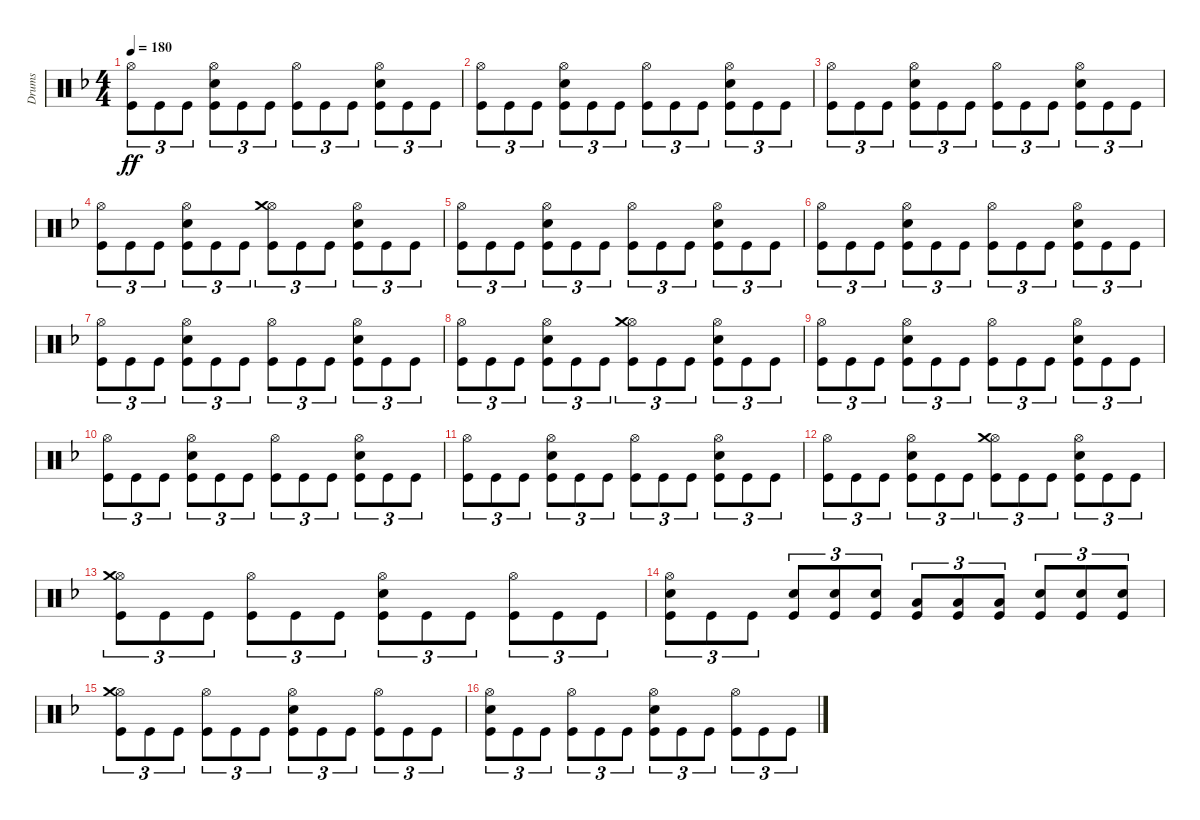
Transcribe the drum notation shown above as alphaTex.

\track ("Drums" "Drums") {instrument percussion}
\staff {score}
\articulation defaults
\ts (4 4)
\tempo 180
\clef neutral
\ks dminor
("Hi-Hat (open)" "Kick (hit)").8{tu (3 2) dy ff} "Kick (hit)".8{tu (3 2)} "Kick (hit)".8{tu (3 2)} ("Hi-Hat (open)" "Snare (hit) 2" "Kick (hit)").8{tu (3 2)} "Kick (hit)".8{tu (3 2)} "Kick (hit)".8{tu (3 2)} ("Hi-Hat (open)" "Kick (hit)").8{tu (3 2)} "Kick (hit)".8{tu (3 2)} "Kick (hit)".8{tu (3 2)} ("Hi-Hat (open)" "Snare (hit) 2" "Kick (hit)").8{tu (3 2)} "Kick (hit)".8{tu (3 2)} "Kick (hit)".8{tu (3 2)} |
("Hi-Hat (open)" "Kick (hit)").8{tu (3 2)} "Kick (hit)".8{tu (3 2)} "Kick (hit)".8{tu (3 2)} ("Hi-Hat (open)" "Snare (hit) 2" "Kick (hit)").8{tu (3 2)} "Kick (hit)".8{tu (3 2)} "Kick (hit)".8{tu (3 2)} ("Hi-Hat (open)" "Kick (hit)").8{tu (3 2)} "Kick (hit)".8{tu (3 2)} "Kick (hit)".8{tu (3 2)} ("Hi-Hat (open)" "Snare (hit) 2" "Kick (hit)").8{tu (3 2)} "Kick (hit)".8{tu (3 2)} "Kick (hit)".8{tu (3 2)} |
("Hi-Hat (open)" "Kick (hit)").8{tu (3 2)} "Kick (hit)".8{tu (3 2)} "Kick (hit)".8{tu (3 2)} ("Hi-Hat (open)" "Snare (hit) 2" "Kick (hit)").8{tu (3 2)} "Kick (hit)".8{tu (3 2)} "Kick (hit)".8{tu (3 2)} ("Hi-Hat (open)" "Kick (hit)").8{tu (3 2)} "Kick (hit)".8{tu (3 2)} "Kick (hit)".8{tu (3 2)} ("Hi-Hat (open)" "Snare (hit) 2" "Kick (hit)").8{tu (3 2)} "Kick (hit)".8{tu (3 2)} "Kick (hit)".8{tu (3 2)} |
("Hi-Hat (open)" "Kick (hit)").8{tu (3 2)} "Kick (hit)".8{tu (3 2)} "Kick (hit)".8{tu (3 2)} ("Hi-Hat (open)" "Snare (hit) 2" "Kick (hit)").8{tu (3 2)} "Kick (hit)".8{tu (3 2)} "Kick (hit)".8{tu (3 2)} ("Hi-Hat (open)" "Crash medium (hit)" "Kick (hit)").8{tu (3 2)} "Kick (hit)".8{tu (3 2)} "Kick (hit)".8{tu (3 2)} ("Hi-Hat (open)" "Snare (hit) 2" "Kick (hit)").8{tu (3 2)} "Kick (hit)".8{tu (3 2)} "Kick (hit)".8{tu (3 2)} |
("Hi-Hat (open)" "Kick (hit)").8{tu (3 2)} "Kick (hit)".8{tu (3 2)} "Kick (hit)".8{tu (3 2)} ("Hi-Hat (open)" "Snare (hit) 2" "Kick (hit)").8{tu (3 2)} "Kick (hit)".8{tu (3 2)} "Kick (hit)".8{tu (3 2)} ("Hi-Hat (open)" "Kick (hit)").8{tu (3 2)} "Kick (hit)".8{tu (3 2)} "Kick (hit)".8{tu (3 2)} ("Hi-Hat (open)" "Snare (hit) 2" "Kick (hit)").8{tu (3 2)} "Kick (hit)".8{tu (3 2)} "Kick (hit)".8{tu (3 2)} |
("Hi-Hat (open)" "Kick (hit)").8{tu (3 2)} "Kick (hit)".8{tu (3 2)} "Kick (hit)".8{tu (3 2)} ("Hi-Hat (open)" "Snare (hit) 2" "Kick (hit)").8{tu (3 2)} "Kick (hit)".8{tu (3 2)} "Kick (hit)".8{tu (3 2)} ("Hi-Hat (open)" "Kick (hit)").8{tu (3 2)} "Kick (hit)".8{tu (3 2)} "Kick (hit)".8{tu (3 2)} ("Hi-Hat (open)" "Snare (hit) 2" "Kick (hit)").8{tu (3 2)} "Kick (hit)".8{tu (3 2)} "Kick (hit)".8{tu (3 2)} |
("Hi-Hat (open)" "Kick (hit)").8{tu (3 2)} "Kick (hit)".8{tu (3 2)} "Kick (hit)".8{tu (3 2)} ("Hi-Hat (open)" "Snare (hit) 2" "Kick (hit)").8{tu (3 2)} "Kick (hit)".8{tu (3 2)} "Kick (hit)".8{tu (3 2)} ("Hi-Hat (open)" "Kick (hit)").8{tu (3 2)} "Kick (hit)".8{tu (3 2)} "Kick (hit)".8{tu (3 2)} ("Hi-Hat (open)" "Snare (hit) 2" "Kick (hit)").8{tu (3 2)} "Kick (hit)".8{tu (3 2)} "Kick (hit)".8{tu (3 2)} |
("Hi-Hat (open)" "Kick (hit)").8{tu (3 2)} "Kick (hit)".8{tu (3 2)} "Kick (hit)".8{tu (3 2)} ("Hi-Hat (open)" "Snare (hit) 2" "Kick (hit)").8{tu (3 2)} "Kick (hit)".8{tu (3 2)} "Kick (hit)".8{tu (3 2)} ("Hi-Hat (open)" "Crash medium (hit)" "Kick (hit)").8{tu (3 2)} "Kick (hit)".8{tu (3 2)} "Kick (hit)".8{tu (3 2)} ("Hi-Hat (open)" "Snare (hit) 2" "Kick (hit)").8{tu (3 2)} "Kick (hit)".8{tu (3 2)} "Kick (hit)".8{tu (3 2)} |
("Hi-Hat (open)" "Kick (hit)").8{tu (3 2)} "Kick (hit)".8{tu (3 2)} "Kick (hit)".8{tu (3 2)} ("Hi-Hat (open)" "Snare (hit) 2" "Kick (hit)").8{tu (3 2)} "Kick (hit)".8{tu (3 2)} "Kick (hit)".8{tu (3 2)} ("Hi-Hat (open)" "Kick (hit)").8{tu (3 2)} "Kick (hit)".8{tu (3 2)} "Kick (hit)".8{tu (3 2)} ("Hi-Hat (open)" "Snare (hit) 2" "Kick (hit)").8{tu (3 2)} "Kick (hit)".8{tu (3 2)} "Kick (hit)".8{tu (3 2)} |
("Hi-Hat (open)" "Kick (hit)").8{tu (3 2)} "Kick (hit)".8{tu (3 2)} "Kick (hit)".8{tu (3 2)} ("Hi-Hat (open)" "Snare (hit) 2" "Kick (hit)").8{tu (3 2)} "Kick (hit)".8{tu (3 2)} "Kick (hit)".8{tu (3 2)} ("Hi-Hat (open)" "Kick (hit)").8{tu (3 2)} "Kick (hit)".8{tu (3 2)} "Kick (hit)".8{tu (3 2)} ("Hi-Hat (open)" "Snare (hit) 2" "Kick (hit)").8{tu (3 2)} "Kick (hit)".8{tu (3 2)} "Kick (hit)".8{tu (3 2)} |
("Hi-Hat (open)" "Kick (hit)").8{tu (3 2)} "Kick (hit)".8{tu (3 2)} "Kick (hit)".8{tu (3 2)} ("Hi-Hat (open)" "Snare (hit) 2" "Kick (hit)").8{tu (3 2)} "Kick (hit)".8{tu (3 2)} "Kick (hit)".8{tu (3 2)} ("Hi-Hat (open)" "Kick (hit)").8{tu (3 2)} "Kick (hit)".8{tu (3 2)} "Kick (hit)".8{tu (3 2)} ("Hi-Hat (open)" "Snare (hit) 2" "Kick (hit)").8{tu (3 2)} "Kick (hit)".8{tu (3 2)} "Kick (hit)".8{tu (3 2)} |
("Hi-Hat (open)" "Kick (hit)").8{tu (3 2)} "Kick (hit)".8{tu (3 2)} "Kick (hit)".8{tu (3 2)} ("Hi-Hat (open)" "Snare (hit) 2" "Kick (hit)").8{tu (3 2)} "Kick (hit)".8{tu (3 2)} "Kick (hit)".8{tu (3 2)} ("Hi-Hat (open)" "Crash medium (hit)" "Kick (hit)").8{tu (3 2)} "Kick (hit)".8{tu (3 2)} "Kick (hit)".8{tu (3 2)} ("Hi-Hat (open)" "Snare (hit) 2" "Kick (hit)").8{tu (3 2)} "Kick (hit)".8{tu (3 2)} "Kick (hit)".8{tu (3 2)} |
("Hi-Hat (open)" "Crash medium (hit)" "Kick (hit)").8{tu (3 2)} "Kick (hit)".8{tu (3 2)} "Kick (hit)".8{tu (3 2)} ("Hi-Hat (open)" "Kick (hit)").8{tu (3 2)} "Kick (hit)".8{tu (3 2)} "Kick (hit)".8{tu (3 2)} ("Hi-Hat (open)" "Snare (hit) 2" "Kick (hit)").8{tu (3 2)} "Kick (hit)".8{tu (3 2)} "Kick (hit)".8{tu (3 2)} ("Hi-Hat (open)" "Kick (hit)").8{tu (3 2)} "Kick (hit)".8{tu (3 2)} "Kick (hit)".8{tu (3 2)} |
("Hi-Hat (open)" "Snare (hit) 2" "Kick (hit)").8{tu (3 2)} "Kick (hit)".8{tu (3 2)} "Kick (hit)".8{tu (3 2)} ("Snare (hit) 2" "Kick (hit)").8{tu (3 2)} ("Snare (hit) 2" "Kick (hit)").8{tu (3 2)} ("Snare (hit) 2" "Kick (hit)").8{tu (3 2)} ("Low Tom (hit)" "Kick (hit)").8{tu (3 2)} ("Low Tom (hit)" "Kick (hit)").8{tu (3 2)} ("Low Tom (hit)" "Kick (hit)").8{tu (3 2)} ("Snare (hit) 2" "Kick (hit)").8{tu (3 2)} ("Snare (hit) 2" "Kick (hit)").8{tu (3 2)} ("Snare (hit) 2" "Kick (hit)").8{tu (3 2)} |
("Hi-Hat (open)" "Crash medium (hit)" "Kick (hit)").8{tu (3 2)} "Kick (hit)".8{tu (3 2)} "Kick (hit)".8{tu (3 2)} ("Hi-Hat (open)" "Kick (hit)").8{tu (3 2)} "Kick (hit)".8{tu (3 2)} "Kick (hit)".8{tu (3 2)} ("Hi-Hat (open)" "Snare (hit) 2" "Kick (hit)").8{tu (3 2)} "Kick (hit)".8{tu (3 2)} "Kick (hit)".8{tu (3 2)} ("Hi-Hat (open)" "Kick (hit)").8{tu (3 2)} "Kick (hit)".8{tu (3 2)} "Kick (hit)".8{tu (3 2)} |
("Hi-Hat (open)" "Snare (hit) 2" "Kick (hit)").8{tu (3 2)} "Kick (hit)".8{tu (3 2)} "Kick (hit)".8{tu (3 2)} ("Hi-Hat (open)" "Kick (hit)").8{tu (3 2)} "Kick (hit)".8{tu (3 2)} "Kick (hit)".8{tu (3 2)} ("Hi-Hat (open)" "Snare (hit) 2" "Kick (hit)").8{tu (3 2)} "Kick (hit)".8{tu (3 2)} "Kick (hit)".8{tu (3 2)} ("Hi-Hat (open)" "Kick (hit)").8{tu (3 2)} "Kick (hit)".8{tu (3 2)} "Kick (hit)".8{tu (3 2)}
